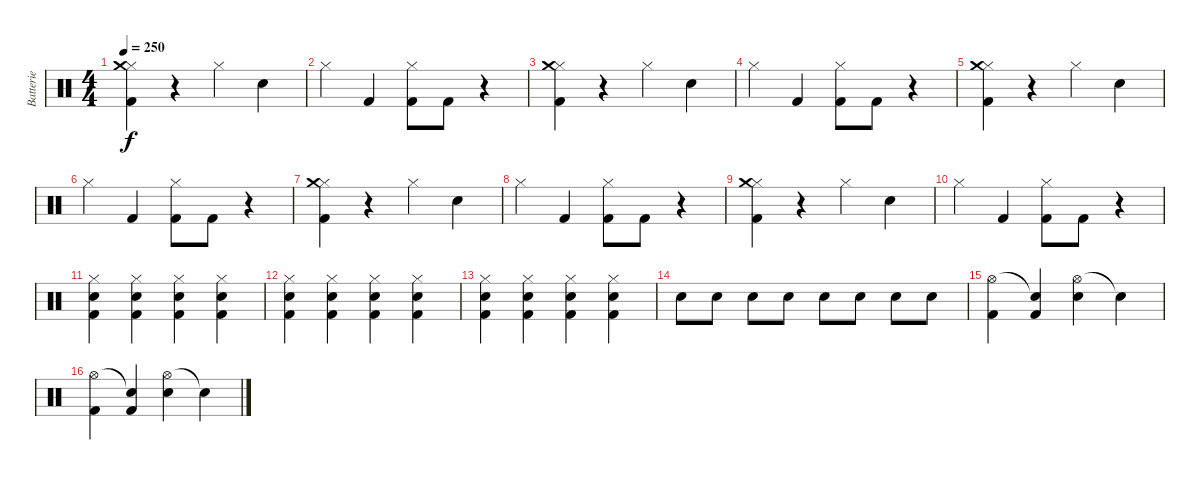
\track ("Batterie" "Batterie") {instrument percussion}
\staff {score}
\articulation defaults
\ts (4 4)
\tempo 250
\clef neutral
\ks c
("Hi-Hat (closed)" "Crash medium (hit)" "Kick (hit) 2").4{dy f} r.4 "Hi-Hat (closed)".4 "Electric Snare (hit)".4 |
"Hi-Hat (closed)".4 "Kick (hit) 2".4 ("Hi-Hat (closed)" "Kick (hit) 2").8 "Kick (hit) 2".8 r.4 |
("Hi-Hat (closed)" "Crash medium (hit)" "Kick (hit) 2").4 r.4 "Hi-Hat (closed)".4 "Electric Snare (hit)".4 |
"Hi-Hat (closed)".4 "Kick (hit) 2".4 ("Hi-Hat (closed)" "Kick (hit) 2").8 "Kick (hit) 2".8 r.4 |
("Hi-Hat (closed)" "Crash medium (hit)" "Kick (hit) 2").4 r.4 "Hi-Hat (closed)".4 "Electric Snare (hit)".4 |
"Hi-Hat (closed)".4 "Kick (hit) 2".4 ("Hi-Hat (closed)" "Kick (hit) 2").8 "Kick (hit) 2".8 r.4 |
("Hi-Hat (closed)" "Crash medium (hit)" "Kick (hit) 2").4 r.4 "Hi-Hat (closed)".4 "Electric Snare (hit)".4 |
"Hi-Hat (closed)".4 "Kick (hit) 2".4 ("Hi-Hat (closed)" "Kick (hit) 2").8 "Kick (hit) 2".8 r.4 |
("Hi-Hat (closed)" "Crash medium (hit)" "Kick (hit) 2").4 r.4 "Hi-Hat (closed)".4 "Electric Snare (hit)".4 |
"Hi-Hat (closed)".4 "Kick (hit) 2".4 ("Hi-Hat (closed)" "Kick (hit) 2").8 "Kick (hit) 2".8 r.4 |
("Hi-Hat (closed)" "Snare (hit) 2" "Kick (hit) 2").4 ("Hi-Hat (closed)" "Snare (hit) 2" "Kick (hit) 2").4 ("Hi-Hat (closed)" "Snare (hit) 2" "Kick (hit) 2").4 ("Hi-Hat (closed)" "Snare (hit) 2" "Kick (hit) 2").4 |
("Hi-Hat (closed)" "Snare (hit) 2" "Kick (hit) 2").4 ("Hi-Hat (closed)" "Snare (hit) 2" "Kick (hit) 2").4 ("Hi-Hat (closed)" "Snare (hit) 2" "Kick (hit) 2").4 ("Hi-Hat (closed)" "Snare (hit) 2" "Kick (hit) 2").4 |
("Hi-Hat (closed)" "Snare (hit) 2" "Kick (hit) 2").4 ("Hi-Hat (closed)" "Snare (hit) 2" "Kick (hit) 2").4 ("Hi-Hat (closed)" "Snare (hit) 2" "Kick (hit) 2").4 ("Hi-Hat (closed)" "Snare (hit) 2" "Kick (hit) 2").4 |
"Electric Snare (hit)".8 "Electric Snare (hit)".8 "Electric Snare (hit)".8 "Electric Snare (hit)".8 "Electric Snare (hit)".8 "Electric Snare (hit)".8 "Electric Snare (hit)".8 "Electric Snare (hit)".8 |
("Hi-Hat (open)" "Kick (hit) 2").4 ("Snare (hit)"{t} "Kick (hit) 2").4 ("Hi-Hat (open)" "Electric Snare (hit)").4 "Snare (hit)"{t}.4 |
("Hi-Hat (open)" "Kick (hit) 2").4 ("Snare (hit)"{t} "Kick (hit) 2").4 ("Hi-Hat (open)" "Electric Snare (hit)").4 "Snare (hit)"{t}.4
